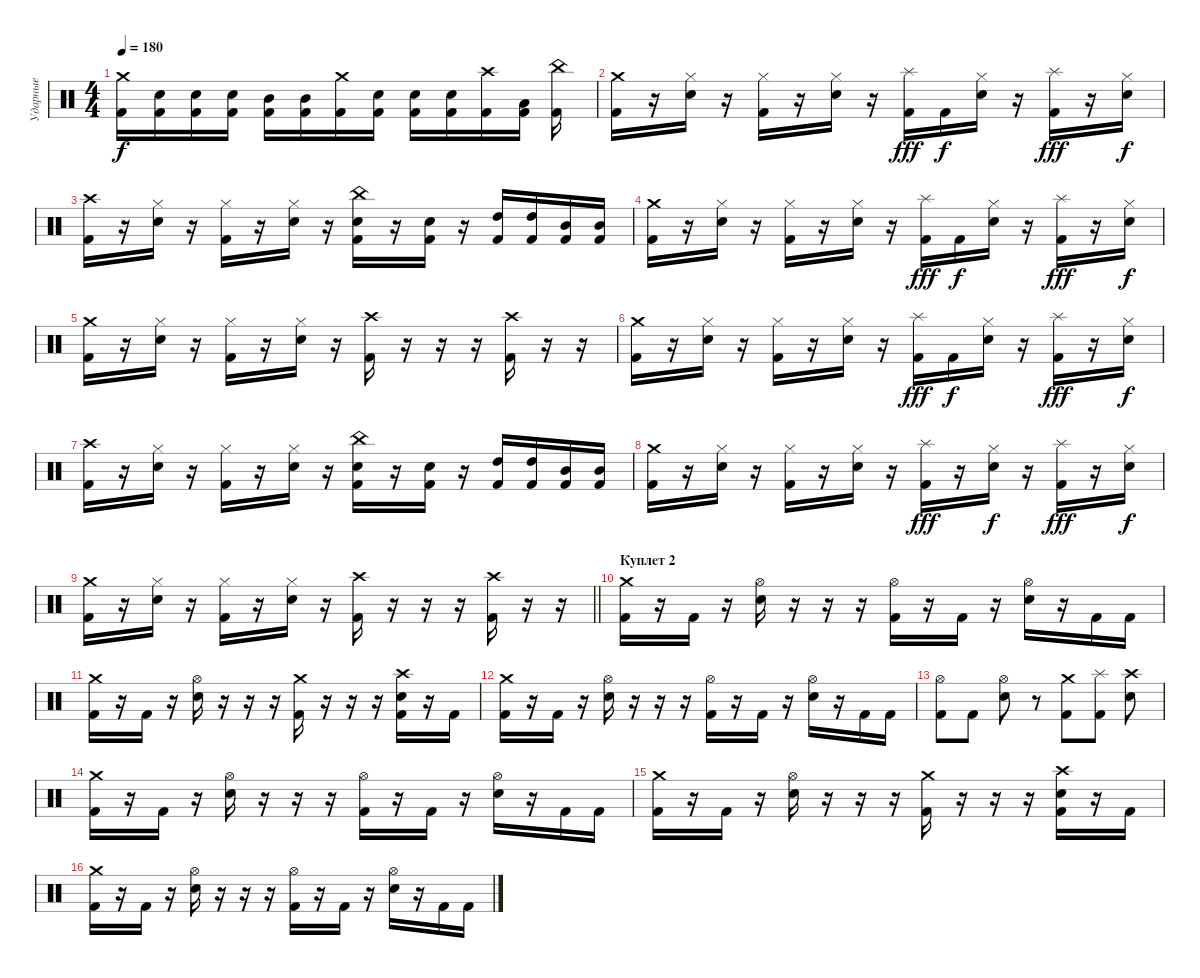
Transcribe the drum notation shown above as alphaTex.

\track ("Ударные" "Ударные") {instrument percussion}
\staff {score}
\articulation defaults
\ts (4 4)
\tempo 180
\clef neutral
\ks c
("Crash medium (hit)" "Kick (hit) 2").16{dy f} ("Snare (hit) 2" "Kick (hit) 2").16 ("Snare (hit) 2" "Kick (hit) 2").16 ("Snare (hit) 2" "Kick (hit) 2").16 ("Mid Tom (hit)" "Kick (hit) 2").16 ("Mid Tom (hit)" "Kick (hit) 2").16 ("Crash medium (hit)" "Kick (hit) 2").16 ("Snare (hit) 2" "Kick (hit) 2").16 ("Snare (hit) 2" "Kick (hit) 2").16 ("Snare (hit) 2" "Kick (hit) 2").16 ("Crash high (hit)" "Kick (hit) 2").16 ("Low Tom (hit)" "Kick (hit) 2").16 ("China (hit)" "Kick (hit) 2").16 |
("Crash medium (hit)" "Kick (hit) 2").16 r.16 ("Hi-Hat (closed)" "Snare (hit) 2").16 r.16 ("Hi-Hat (closed)" "Kick (hit) 2").16 r.16 ("Hi-Hat (closed)" "Snare (hit) 2").16 r.16 ("Splash (hit)" "Kick (hit) 2").16{dy fff} "Kick (hit) 2".16{dy f} ("Hi-Hat (closed)" "Snare (hit) 2").16 r.16 ("Splash (hit)" "Kick (hit) 2").16{dy fff} r.16 ("Hi-Hat (closed)" "Snare (hit) 2").16{dy f} |
("Crash high (hit)" "Kick (hit) 2").16 r.16 ("Hi-Hat (closed)" "Snare (hit) 2").16 r.16 ("Hi-Hat (closed)" "Kick (hit) 2").16 r.16 ("Hi-Hat (closed)" "Snare (hit) 2").16 r.16 ("China (hit)" "Snare (hit) 2" "Kick (hit) 2").16 r.16 ("Snare (hit) 2" "Kick (hit) 2").16 r.16 ("High Tom (hit)" "Kick (hit) 2").16 ("High Tom (hit)" "Kick (hit) 2").16 ("Mid Tom (hit)" "Kick (hit) 2").16 ("Mid Tom (hit)" "Kick (hit) 2").16 |
("Crash medium (hit)" "Kick (hit) 2").16 r.16 ("Hi-Hat (closed)" "Snare (hit) 2").16 r.16 ("Hi-Hat (closed)" "Kick (hit) 2").16 r.16 ("Hi-Hat (closed)" "Snare (hit) 2").16 r.16 ("Splash (hit)" "Kick (hit) 2").16{dy fff} "Kick (hit) 2".16{dy f} ("Hi-Hat (closed)" "Snare (hit) 2").16 r.16 ("Splash (hit)" "Kick (hit) 2").16{dy fff} r.16 ("Hi-Hat (closed)" "Snare (hit) 2").16{dy f} |
("Crash medium (hit)" "Kick (hit) 2").16 r.16 ("Hi-Hat (closed)" "Snare (hit) 2").16 r.16 ("Hi-Hat (closed)" "Kick (hit) 2").16 r.16 ("Hi-Hat (closed)" "Snare (hit) 2").16 r.16 ("Crash high (hit)" "Kick (hit) 2").16 r.16 r.16 r.16 ("Crash high (hit)" "Kick (hit) 2").16 r.16 r.16 |
("Crash medium (hit)" "Kick (hit) 2").16 r.16 ("Hi-Hat (closed)" "Snare (hit) 2").16 r.16 ("Hi-Hat (closed)" "Kick (hit) 2").16 r.16 ("Hi-Hat (closed)" "Snare (hit) 2").16 r.16 ("Splash (hit)" "Kick (hit) 2").16{dy fff} "Kick (hit) 2".16{dy f} ("Hi-Hat (closed)" "Snare (hit) 2").16 r.16 ("Splash (hit)" "Kick (hit) 2").16{dy fff} r.16 ("Hi-Hat (closed)" "Snare (hit) 2").16{dy f} |
("Crash high (hit)" "Kick (hit) 2").16 r.16 ("Hi-Hat (closed)" "Snare (hit) 2").16 r.16 ("Hi-Hat (closed)" "Kick (hit) 2").16 r.16 ("Hi-Hat (closed)" "Snare (hit) 2").16 r.16 ("China (hit)" "Snare (hit) 2" "Kick (hit) 2").16 r.16 ("Snare (hit) 2" "Kick (hit) 2").16 r.16 ("High Tom (hit)" "Kick (hit) 2").16 ("High Tom (hit)" "Kick (hit) 2").16 ("Mid Tom (hit)" "Kick (hit) 2").16 ("Mid Tom (hit)" "Kick (hit) 2").16 |
("Crash medium (hit)" "Kick (hit) 2").16 r.16 ("Hi-Hat (closed)" "Snare (hit) 2").16 r.16 ("Hi-Hat (closed)" "Kick (hit) 2").16 r.16 ("Hi-Hat (closed)" "Snare (hit) 2").16 r.16 ("Splash (hit)" "Kick (hit) 2").16{dy fff} r.16 ("Hi-Hat (closed)" "Snare (hit) 2").16{dy f} r.16 ("Splash (hit)" "Kick (hit) 2").16{dy fff} r.16 ("Hi-Hat (closed)" "Snare (hit) 2").16{dy f} |
\barLineRight lightlight
("Crash medium (hit)" "Kick (hit) 2").16 r.16 ("Hi-Hat (closed)" "Snare (hit) 2").16 r.16 ("Hi-Hat (closed)" "Kick (hit) 2").16 r.16 ("Hi-Hat (closed)" "Snare (hit) 2").16 r.16 ("Crash high (hit)" "Kick (hit) 2").16 r.16 r.16 r.16 ("Crash high (hit)" "Kick (hit) 2").16 r.16 r.16 |
\section ("" "Куплет 2")
("Crash medium (hit)" "Kick (hit) 2").16 r.16 "Kick (hit) 2".16 r.16 ("Hi-Hat (open)" "Snare (hit) 2").16 r.16 r.16 r.16 ("Hi-Hat (open)" "Kick (hit) 2").16 r.16 "Kick (hit) 2".16 r.16 ("Hi-Hat (open)" "Snare (hit) 2").16 r.16 "Kick (hit) 2".16 "Kick (hit) 2".16 |
("Crash medium (hit)" "Kick (hit) 2").16 r.16 "Kick (hit) 2".16 r.16 ("Hi-Hat (open)" "Snare (hit) 2").16 r.16 r.16 r.16 ("Crash medium (hit)" "Kick (hit) 2").16 r.16 r.16 r.16 ("Crash high (hit)" "Snare (hit) 2" "Kick (hit) 2").16 r.16 "Kick (hit) 2".16 |
("Crash medium (hit)" "Kick (hit) 2").16 r.16 "Kick (hit) 2".16 r.16 ("Hi-Hat (open)" "Snare (hit) 2").16 r.16 r.16 r.16 ("Hi-Hat (open)" "Kick (hit) 2").16 r.16 "Kick (hit) 2".16 r.16 ("Hi-Hat (open)" "Snare (hit) 2").16 r.16 "Kick (hit) 2".16 "Kick (hit) 2".16 |
("Hi-Hat (open)" "Kick (hit) 2").8 "Kick (hit) 2".8 ("Hi-Hat (open)" "Snare (hit) 2").8 r.8 ("Crash medium (hit)" "Kick (hit) 2").8 ("Splash (hit)" "Kick (hit) 2").8 ("Crash high (hit)" "Snare (hit) 2").8 |
("Crash medium (hit)" "Kick (hit) 2").16 r.16 "Kick (hit) 2".16 r.16 ("Hi-Hat (open)" "Snare (hit) 2").16 r.16 r.16 r.16 ("Hi-Hat (open)" "Kick (hit) 2").16 r.16 "Kick (hit) 2".16 r.16 ("Hi-Hat (open)" "Snare (hit) 2").16 r.16 "Kick (hit) 2".16 "Kick (hit) 2".16 |
("Crash medium (hit)" "Kick (hit) 2").16 r.16 "Kick (hit) 2".16 r.16 ("Hi-Hat (open)" "Snare (hit) 2").16 r.16 r.16 r.16 ("Crash medium (hit)" "Kick (hit) 2").16 r.16 r.16 r.16 ("Crash high (hit)" "Snare (hit) 2" "Kick (hit) 2").16 r.16 "Kick (hit) 2".16 |
("Crash medium (hit)" "Kick (hit) 2").16 r.16 "Kick (hit) 2".16 r.16 ("Hi-Hat (open)" "Snare (hit) 2").16 r.16 r.16 r.16 ("Hi-Hat (open)" "Kick (hit) 2").16 r.16 "Kick (hit) 2".16 r.16 ("Hi-Hat (open)" "Snare (hit) 2").16 r.16 "Kick (hit) 2".16 "Kick (hit) 2".16
